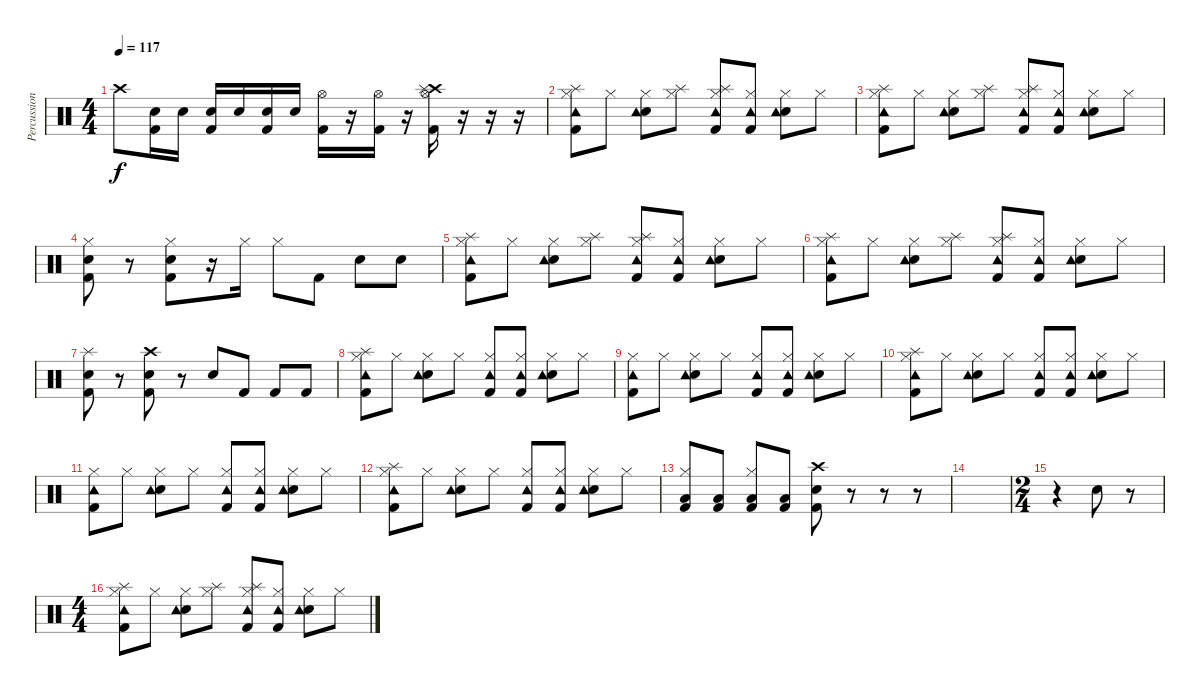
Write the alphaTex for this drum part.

\track ("Percussion" "Percussion") {instrument percussion}
\staff {score}
\articulation defaults
\ts (4 4)
\tempo 117
\clef neutral
\ks c "Crash high (hit)".8{dy f}
("Electric Snare (hit)" "Kick (hit) 2").16 "Electric Snare (hit)".16 ("Electric Snare (hit)" "Kick (hit) 2").16 "Electric Snare (hit)".16 ("Electric Snare (hit)" "Kick (hit) 2").16 "Electric Snare (hit)".16 ("Hi-Hat (open)" "Kick (hit) 2").16 r.16 ("Hi-Hat (open)" "Kick (hit) 2").16 r.16 ("Crash high (hit)" "Splash (hit)" "Hi-Hat (open)" "Kick (hit) 2").16 r.16 r.16 r.16 |
("Hi-Hat (closed)" "Kick (hit) 2" "Splash (hit)" "Tambourine (hit)").8 "Hi-Hat (closed)".8 ("Hi-Hat (closed)" "Electric Snare (hit)" "Tambourine (hit)").8 ("Hi-Hat (closed)" "Splash (hit)").8 ("Hi-Hat (closed)" "Kick (hit) 2" "Splash (hit)" "Tambourine (hit)").8 ("Hi-Hat (closed)" "Kick (hit) 2" "Tambourine (hit)").8 ("Hi-Hat (closed)" "Electric Snare (hit)" "Tambourine (hit)").8 "Hi-Hat (closed)".8 |
("Hi-Hat (closed)" "Kick (hit) 2" "Splash (hit)" "Tambourine (hit)").8 "Hi-Hat (closed)".8 ("Hi-Hat (closed)" "Electric Snare (hit)" "Tambourine (hit)").8 ("Hi-Hat (closed)" "Splash (hit)").8 ("Hi-Hat (closed)" "Kick (hit) 2" "Splash (hit)" "Tambourine (hit)").8 ("Hi-Hat (closed)" "Kick (hit) 2" "Tambourine (hit)").8 ("Hi-Hat (closed)" "Electric Snare (hit)" "Tambourine (hit)").8 "Hi-Hat (closed)".8 |
("Hi-Hat (closed)" "Electric Snare (hit)" "Kick (hit) 2").8 r.8 ("Hi-Hat (closed)" "Electric Snare (hit)" "Kick (hit) 2").8 r.16 "Hi-Hat (closed)".16 "Hi-Hat (closed)".8 "Kick (hit) 2".8 "Electric Snare (hit)".8 "Electric Snare (hit)".8 |
("Hi-Hat (closed)" "Kick (hit) 2" "Splash (hit)" "Tambourine (hit)").8 "Hi-Hat (closed)".8 ("Hi-Hat (closed)" "Electric Snare (hit)" "Tambourine (hit)").8 ("Hi-Hat (closed)" "Splash (hit)").8 ("Hi-Hat (closed)" "Kick (hit) 2" "Splash (hit)" "Tambourine (hit)").8 ("Hi-Hat (closed)" "Kick (hit) 2" "Tambourine (hit)").8 ("Hi-Hat (closed)" "Electric Snare (hit)" "Tambourine (hit)").8 "Hi-Hat (closed)".8 |
("Hi-Hat (closed)" "Kick (hit) 2" "Splash (hit)" "Tambourine (hit)").8 "Hi-Hat (closed)".8 ("Hi-Hat (closed)" "Electric Snare (hit)" "Tambourine (hit)").8 ("Hi-Hat (closed)" "Splash (hit)").8 ("Hi-Hat (closed)" "Kick (hit) 2" "Splash (hit)" "Tambourine (hit)").8 ("Hi-Hat (closed)" "Kick (hit) 2" "Tambourine (hit)").8 ("Hi-Hat (closed)" "Electric Snare (hit)" "Tambourine (hit)").8 "Hi-Hat (closed)".8 |
("Splash (hit)" "Electric Snare (hit)" "Kick (hit) 2").8 r.8 ("Crash high (hit)" "Electric Snare (hit)" "Kick (hit) 2").8 r.8 "Electric Snare (hit)".8 "Kick (hit) 2".8 "Kick (hit) 2".8 "Kick (hit) 2".8 |
("Hi-Hat (closed)" "Kick (hit) 2" "Splash (hit)" "Tambourine (hit)").8 "Hi-Hat (closed)".8 ("Hi-Hat (closed)" "Electric Snare (hit)" "Tambourine (hit)").8 "Hi-Hat (closed)".8 ("Hi-Hat (closed)" "Kick (hit) 2" "Tambourine (hit)").8 ("Hi-Hat (closed)" "Kick (hit) 2" "Tambourine (hit)").8 ("Hi-Hat (closed)" "Electric Snare (hit)" "Tambourine (hit)").8 "Hi-Hat (closed)".8 |
("Hi-Hat (closed)" "Kick (hit) 2" "Tambourine (hit)").8 "Hi-Hat (closed)".8 ("Hi-Hat (closed)" "Electric Snare (hit)" "Tambourine (hit)").8 "Hi-Hat (closed)".8 ("Hi-Hat (closed)" "Kick (hit) 2" "Tambourine (hit)").8 ("Hi-Hat (closed)" "Kick (hit) 2" "Tambourine (hit)").8 ("Hi-Hat (closed)" "Electric Snare (hit)" "Tambourine (hit)").8 "Hi-Hat (closed)".8 |
("Hi-Hat (closed)" "Kick (hit) 2" "Splash (hit)" "Tambourine (hit)").8 "Hi-Hat (closed)".8 ("Hi-Hat (closed)" "Electric Snare (hit)" "Tambourine (hit)").8 "Hi-Hat (closed)".8 ("Hi-Hat (closed)" "Kick (hit) 2" "Tambourine (hit)").8 ("Hi-Hat (closed)" "Kick (hit) 2" "Tambourine (hit)").8 ("Hi-Hat (closed)" "Electric Snare (hit)" "Tambourine (hit)").8 "Hi-Hat (closed)".8 |
("Hi-Hat (closed)" "Kick (hit) 2" "Tambourine (hit)").8 "Hi-Hat (closed)".8 ("Hi-Hat (closed)" "Electric Snare (hit)" "Tambourine (hit)").8 "Hi-Hat (closed)".8 ("Hi-Hat (closed)" "Kick (hit) 2" "Tambourine (hit)").8 ("Hi-Hat (closed)" "Kick (hit) 2" "Tambourine (hit)").8 ("Hi-Hat (closed)" "Electric Snare (hit)" "Tambourine (hit)").8 "Hi-Hat (closed)".8 |
("Hi-Hat (closed)" "Kick (hit) 2" "Splash (hit)" "Tambourine (hit)").8 "Hi-Hat (closed)".8 ("Hi-Hat (closed)" "Electric Snare (hit)" "Tambourine (hit)").8 "Hi-Hat (closed)".8 ("Hi-Hat (closed)" "Kick (hit) 2" "Tambourine (hit)").8 ("Hi-Hat (closed)" "Kick (hit) 2" "Tambourine (hit)").8 ("Hi-Hat (closed)" "Electric Snare (hit)" "Tambourine (hit)").8 "Hi-Hat (closed)".8 |
("Hi-Hat (closed)" "Low Tom (hit)" "Kick (hit) 2").8 ("Low Tom (hit)" "Kick (hit) 2").8 ("Hi-Hat (closed)" "Low Tom (hit)" "Kick (hit) 2").8 ("Low Tom (hit)" "Kick (hit) 2").8 ("Crash high (hit)" "Electric Snare (hit)" "Kick (hit) 2").8 r.8 r.8 r.8 |
|
\ts (2 4)
r.4 "Electric Snare (hit)".8 r.8 |
\ts (4 4)
("Hi-Hat (closed)" "Kick (hit) 2" "Splash (hit)" "Tambourine (hit)").8 "Hi-Hat (closed)".8 ("Hi-Hat (closed)" "Electric Snare (hit)" "Tambourine (hit)").8 ("Hi-Hat (closed)" "Splash (hit)").8 ("Hi-Hat (closed)" "Kick (hit) 2" "Splash (hit)" "Tambourine (hit)").8 ("Hi-Hat (closed)" "Kick (hit) 2" "Tambourine (hit)").8 ("Hi-Hat (closed)" "Electric Snare (hit)" "Tambourine (hit)").8 "Hi-Hat (closed)".8
